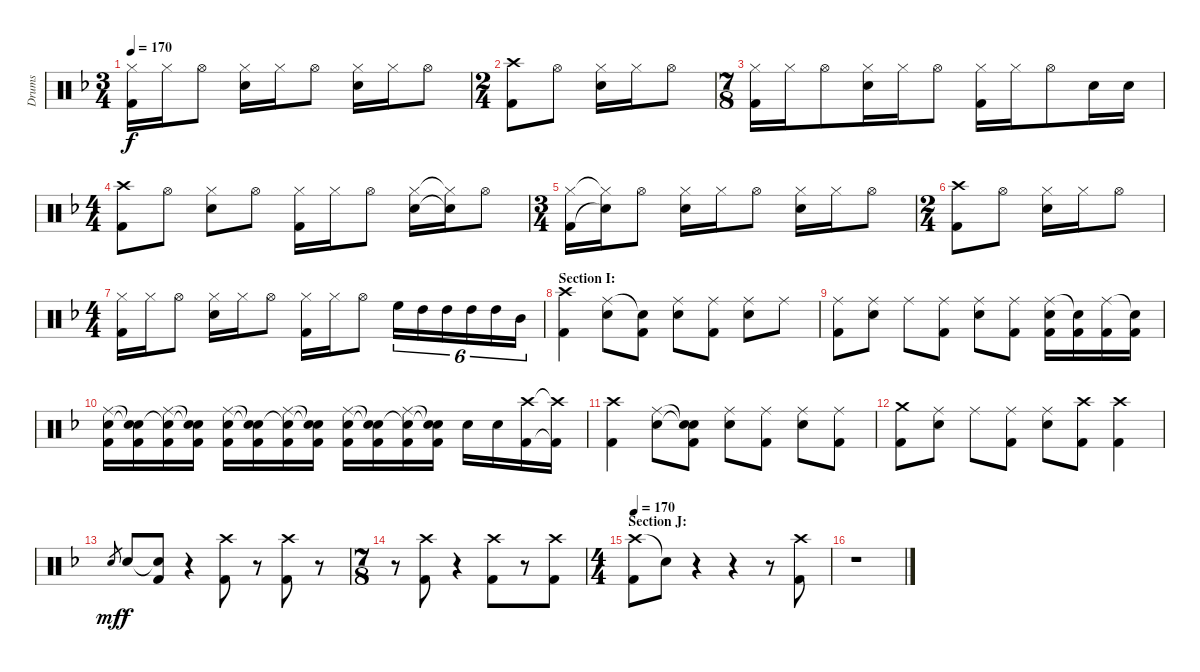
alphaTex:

\track ("Drums" "Drums") {instrument percussion}
\staff {score}
\articulation defaults
\ts (3 4)
\tempo 170
\clef neutral
\ks f
("Hi-Hat (closed)" "Kick (hit) 2").16{dy f} "Hi-Hat (closed)".16 "Hi-Hat (open)".8 ("Hi-Hat (closed)" "Snare (hit) 2").16 "Hi-Hat (closed)".16 "Hi-Hat (open)".8 ("Hi-Hat (closed)" "Snare (hit) 2").16 "Hi-Hat (closed)".16 "Hi-Hat (open)".8 |
\ts (2 4)
("Crash high (hit)" "Kick (hit) 2").8 "Hi-Hat (open)".8 ("Hi-Hat (closed)" "Snare (hit) 2").16 "Hi-Hat (closed)".16 "Hi-Hat (open)".8 |
\ts (7 8)
("Hi-Hat (closed)" "Kick (hit) 2").16 "Hi-Hat (closed)".16 "Hi-Hat (open)".8 ("Hi-Hat (closed)" "Snare (hit) 2").16 "Hi-Hat (closed)".16 "Hi-Hat (open)".8 ("Hi-Hat (closed)" "Kick (hit) 2").16 "Hi-Hat (closed)".16 "Hi-Hat (open)".8 "Snare (hit) 2".16 "Snare (hit) 2".16 |
\ts (4 4)
("Crash high (hit)" "Kick (hit) 2").8 "Hi-Hat (open)".8 ("Hi-Hat (closed)" "Snare (hit) 2").8 "Hi-Hat (open)".8 ("Hi-Hat (closed)" "Kick (hit) 2").16 "Hi-Hat (closed)".16 "Hi-Hat (open)".8 ("Hi-Hat (closed)" "Snare (hit) 2").16 ("Hi-Hat (closed)"{t} "Snare (hit)"{t}).16 "Hi-Hat (open)".8 |
\ts (3 4)
("Hi-Hat (closed)" "Kick (hit) 2").16 ("Hi-Hat (closed)"{t} "Snare (hit)"{t}).16 "Hi-Hat (open)".8 ("Hi-Hat (closed)" "Snare (hit) 2").16 "Hi-Hat (closed)".16 "Hi-Hat (open)".8 ("Hi-Hat (closed)" "Snare (hit) 2").16 "Hi-Hat (closed)".16 "Hi-Hat (open)".8 |
\ts (2 4)
("Crash high (hit)" "Kick (hit) 2").8 "Hi-Hat (open)".8 ("Hi-Hat (closed)" "Snare (hit) 2").16 "Hi-Hat (closed)".16 "Hi-Hat (open)".8 |
\ts (4 4)
("Hi-Hat (closed)" "Kick (hit) 2").16 "Hi-Hat (closed)".16 "Hi-Hat (open)".8 ("Hi-Hat (closed)" "Snare (hit) 2").16 "Hi-Hat (closed)".16 "Hi-Hat (open)".8 ("Hi-Hat (closed)" "Kick (hit) 2").16 "Hi-Hat (closed)".16 "Hi-Hat (open)".8 "High Floor Tom (hit)".16{tu (6 4)} "High Tom (hit)".16{tu (6 4)} "High Tom (hit)".16{tu (6 4)} "High Tom (hit)".16{tu (6 4)} "High Tom (hit)".16{tu (6 4)} "Mid Tom (hit)".16{tu (6 4)} |
\section ("" "Section I:")
("Crash high (hit)" "Kick (hit) 2").4 ("Ride (middle)" "Snare (hit) 2").8 ("Snare (hit)"{t} "Kick (hit) 2").8 ("Ride (middle)" "Snare (hit) 2").8 ("Ride (middle)" "Kick (hit) 2").8 ("Ride (middle)" "Snare (hit) 2").8 "Ride (middle)".8 |
("Ride (middle)" "Kick (hit) 2").8 ("Ride (middle)" "Snare (hit) 2").8 "Ride (middle)".8 ("Ride (middle)" "Kick (hit) 2").8 ("Ride (middle)" "Snare (hit) 2").8 ("Ride (middle)" "Kick (hit) 2").8 ("Ride (middle)" "Snare (hit) 2" "Kick (hit) 2").16 ("Snare (hit)"{t} "Kick (hit) 2").16 ("Ride (middle)" "Kick (hit) 2").16 ("Snare (hit)"{t} "Kick (hit) 2").16 |
("Ride (middle)" "Snare (hit) 2" "Kick (hit) 2").16 ("Snare (hit)"{t} "Snare (hit)"{t} "Kick (hit) 2").16 ("Ride (middle)" "Snare (hit)"{t} "Kick (hit) 2").16 ("Snare (hit)"{t} "Snare (hit)"{t} "Kick (hit) 2").16 ("Ride (middle)" "Snare (hit) 2" "Kick (hit) 2").16 ("Snare (hit)"{t} "Snare (hit)"{t} "Kick (hit) 2").16 ("Ride (middle)" "Snare (hit)"{t} "Kick (hit) 2").16 ("Snare (hit)"{t} "Snare (hit)"{t} "Kick (hit) 2").16 ("Ride (middle)" "Snare (hit) 2" "Kick (hit) 2").16 ("Snare (hit)"{t} "Snare (hit)"{t} "Kick (hit) 2").16 ("Ride (middle)" "Snare (hit)"{t} "Kick (hit) 2").16 ("Snare (hit)"{t} "Snare (hit)"{t} "Kick (hit) 2").16 "Snare (hit) 2".16 "Snare (hit) 2".16 ("Crash high (hit)" "Kick (hit) 2").16 ("Crash high (hit)"{t} "Kick (hit) 2"{t}).16 |
("Crash high (hit)" "Kick (hit) 2").4 ("Ride (middle)" "Snare (hit) 2").8 ("Snare (hit)"{t} "Snare (hit)"{t} "Kick (hit) 2").8 ("Ride (middle)" "Snare (hit) 2").8 ("Ride (middle)" "Kick (hit) 2").8 ("Ride (middle)" "Snare (hit) 2").8 ("Ride (middle)" "Kick (hit) 2").8 |
("Crash medium (hit)" "Kick (hit) 2").8 ("Ride (middle)" "Snare (hit) 2").8 "Ride (middle)".8 ("Ride (middle)" "Kick (hit) 2").8 ("Ride (middle)" "Snare (hit) 2").8 ("Crash high (hit)" "Kick (hit) 2").8 ("Crash high (hit)" "Kick (hit) 2").4 |
"Snare (hit) 2".8{gr dy mf} "Snare (hit) 2".8{dy f} ("Snare (hit)"{t} "Kick (hit) 2").8 r.4 ("Crash high (hit)" "Kick (hit) 2").8 r.8 ("Crash high (hit)" "Kick (hit) 2").8 r.8 |
\ts (7 8)
r.8 ("Crash high (hit)" "Kick (hit) 2").8 r.4 ("Crash high (hit)" "Kick (hit) 2").8 r.8 ("Crash high (hit)" "Kick (hit) 2").8 |
\ts (4 4)
\section ("" "Section J:")
\tempo 170
("Crash high (hit)" "Kick (hit) 2").8 "Snare (hit)"{t}.8 r.4 r.4 r.8 ("Crash high (hit)" "Kick (hit) 2").8 |
r.1
